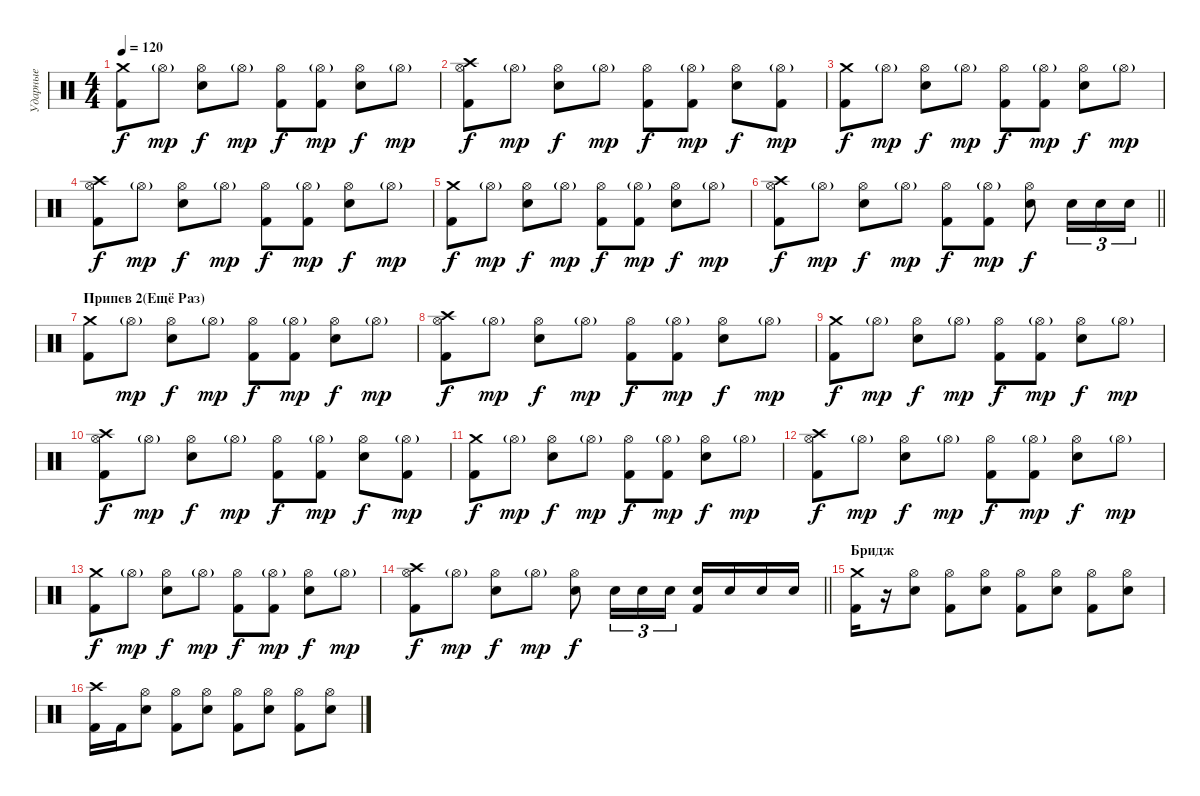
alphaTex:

\track ("Ударные" "Ударные") {instrument percussion}
\staff {score}
\articulation defaults
\ts (4 4)
\tempo 120
\clef neutral
\ks c
("Crash medium (hit)" "Kick (hit) 2").8{dy f} "Hi-Hat (open)"{g}.8{dy mp} ("Hi-Hat (open)" "Snare (hit) 2").8{dy f} "Hi-Hat (open)"{g}.8{dy mp} ("Hi-Hat (open)" "Kick (hit) 2").8{dy f} ("Hi-Hat (open)"{g} "Kick (hit) 2").8{dy mp} ("Hi-Hat (open)" "Snare (hit) 2").8{dy f} "Hi-Hat (open)"{g}.8{dy mp} |
("Crash high (hit)" "Hi-Hat (open)" "Kick (hit) 2").8{dy f} "Hi-Hat (open)"{g}.8{dy mp} ("Hi-Hat (open)" "Snare (hit) 2").8{dy f} "Hi-Hat (open)"{g}.8{dy mp} ("Hi-Hat (open)" "Kick (hit) 2").8{dy f} ("Hi-Hat (open)"{g} "Kick (hit) 2").8{dy mp} ("Hi-Hat (open)" "Snare (hit) 2").8{dy f} ("Hi-Hat (open)"{g} "Kick (hit) 2").8{dy mp} |
("Crash medium (hit)" "Kick (hit) 2").8{dy f} "Hi-Hat (open)"{g}.8{dy mp} ("Hi-Hat (open)" "Snare (hit) 2").8{dy f} "Hi-Hat (open)"{g}.8{dy mp} ("Hi-Hat (open)" "Kick (hit) 2").8{dy f} ("Hi-Hat (open)"{g} "Kick (hit) 2").8{dy mp} ("Hi-Hat (open)" "Snare (hit) 2").8{dy f} "Hi-Hat (open)"{g}.8{dy mp} |
("Hi-Hat (open)" "Kick (hit) 2" "Crash high (hit)").8{dy f} "Hi-Hat (open)"{g}.8{dy mp} ("Hi-Hat (open)" "Snare (hit) 2").8{dy f} "Hi-Hat (open)"{g}.8{dy mp} ("Hi-Hat (open)" "Kick (hit) 2").8{dy f} ("Hi-Hat (open)"{g} "Kick (hit) 2").8{dy mp} ("Hi-Hat (open)" "Snare (hit) 2").8{dy f} "Hi-Hat (open)"{g}.8{dy mp} |
("Crash medium (hit)" "Kick (hit) 2").8{dy f} "Hi-Hat (open)"{g}.8{dy mp} ("Hi-Hat (open)" "Snare (hit) 2").8{dy f} "Hi-Hat (open)"{g}.8{dy mp} ("Hi-Hat (open)" "Kick (hit) 2").8{dy f} ("Hi-Hat (open)"{g} "Kick (hit) 2").8{dy mp} ("Hi-Hat (open)" "Snare (hit) 2").8{dy f} "Hi-Hat (open)"{g}.8{dy mp} |
\barLineRight lightlight
("Crash high (hit)" "Hi-Hat (open)" "Kick (hit) 2").8{dy f} "Hi-Hat (open)"{g}.8{dy mp} ("Hi-Hat (open)" "Snare (hit) 2").8{dy f} "Hi-Hat (open)"{g}.8{dy mp} ("Hi-Hat (open)" "Kick (hit) 2").8{dy f} ("Hi-Hat (open)"{g} "Kick (hit) 2").8{dy mp} ("Hi-Hat (open)" "Snare (hit) 2").8{dy f} "Snare (hit) 2".16{tu (3 2)} "Snare (hit) 2".16{tu (3 2)} "Snare (hit) 2".16{tu (3 2)} |
\section ("" "Припев 2(Ещё Раз)")
("Crash medium (hit)" "Kick (hit) 2").8 "Hi-Hat (open)"{g}.8{dy mp} ("Hi-Hat (open)" "Snare (hit) 2").8{dy f} "Hi-Hat (open)"{g}.8{dy mp} ("Hi-Hat (open)" "Kick (hit) 2").8{dy f} ("Hi-Hat (open)"{g} "Kick (hit) 2").8{dy mp} ("Hi-Hat (open)" "Snare (hit) 2").8{dy f} "Hi-Hat (open)"{g}.8{dy mp} |
("Crash high (hit)" "Hi-Hat (open)" "Kick (hit) 2").8{dy f} "Hi-Hat (open)"{g}.8{dy mp} ("Hi-Hat (open)" "Snare (hit) 2").8{dy f} "Hi-Hat (open)"{g}.8{dy mp} ("Hi-Hat (open)" "Kick (hit) 2").8{dy f} ("Hi-Hat (open)"{g} "Kick (hit) 2").8{dy mp} ("Hi-Hat (open)" "Snare (hit) 2").8{dy f} "Hi-Hat (open)"{g}.8{dy mp} |
("Crash medium (hit)" "Kick (hit) 2").8{dy f} "Hi-Hat (open)"{g}.8{dy mp} ("Hi-Hat (open)" "Snare (hit) 2").8{dy f} "Hi-Hat (open)"{g}.8{dy mp} ("Hi-Hat (open)" "Kick (hit) 2").8{dy f} ("Hi-Hat (open)"{g} "Kick (hit) 2").8{dy mp} ("Hi-Hat (open)" "Snare (hit) 2").8{dy f} "Hi-Hat (open)"{g}.8{dy mp} |
("Crash high (hit)" "Hi-Hat (open)" "Kick (hit) 2").8{dy f} "Hi-Hat (open)"{g}.8{dy mp} ("Hi-Hat (open)" "Snare (hit) 2").8{dy f} "Hi-Hat (open)"{g}.8{dy mp} ("Hi-Hat (open)" "Kick (hit) 2").8{dy f} ("Hi-Hat (open)"{g} "Kick (hit) 2").8{dy mp} ("Hi-Hat (open)" "Snare (hit) 2").8{dy f} ("Hi-Hat (open)"{g} "Kick (hit) 2").8{dy mp} |
("Crash medium (hit)" "Kick (hit) 2").8{dy f} "Hi-Hat (open)"{g}.8{dy mp} ("Hi-Hat (open)" "Snare (hit) 2").8{dy f} "Hi-Hat (open)"{g}.8{dy mp} ("Hi-Hat (open)" "Kick (hit) 2").8{dy f} ("Hi-Hat (open)"{g} "Kick (hit) 2").8{dy mp} ("Hi-Hat (open)" "Snare (hit) 2").8{dy f} "Hi-Hat (open)"{g}.8{dy mp} |
("Hi-Hat (open)" "Kick (hit) 2" "Crash high (hit)").8{dy f} "Hi-Hat (open)"{g}.8{dy mp} ("Hi-Hat (open)" "Snare (hit) 2").8{dy f} "Hi-Hat (open)"{g}.8{dy mp} ("Hi-Hat (open)" "Kick (hit) 2").8{dy f} ("Hi-Hat (open)"{g} "Kick (hit) 2").8{dy mp} ("Hi-Hat (open)" "Snare (hit) 2").8{dy f} "Hi-Hat (open)"{g}.8{dy mp} |
("Crash medium (hit)" "Kick (hit) 2").8{dy f} "Hi-Hat (open)"{g}.8{dy mp} ("Hi-Hat (open)" "Snare (hit) 2").8{dy f} "Hi-Hat (open)"{g}.8{dy mp} ("Hi-Hat (open)" "Kick (hit) 2").8{dy f} ("Hi-Hat (open)"{g} "Kick (hit) 2").8{dy mp} ("Hi-Hat (open)" "Snare (hit) 2").8{dy f} "Hi-Hat (open)"{g}.8{dy mp} |
\barLineRight lightlight
("Crash high (hit)" "Hi-Hat (open)" "Kick (hit) 2").8{dy f} "Hi-Hat (open)"{g}.8{dy mp} ("Hi-Hat (open)" "Snare (hit) 2").8{dy f} "Hi-Hat (open)"{g}.8{dy mp} ("Hi-Hat (open)" "Snare (hit) 2").8{dy f} "Snare (hit) 2".16{tu (3 2)} "Snare (hit) 2".16{tu (3 2)} "Snare (hit) 2".16{tu (3 2)} ("Snare (hit) 2" "Kick (hit) 2").16 "Snare (hit) 2".16 "Snare (hit) 2".16 "Snare (hit) 2".16 |
\section ("" "Бридж")
("Crash medium (hit)" "Kick (hit) 2").16 r.16 ("Hi-Hat (open)" "Snare (hit) 2").8 ("Hi-Hat (open)" "Kick (hit) 2").8 ("Hi-Hat (open)" "Snare (hit) 2").8 ("Hi-Hat (open)" "Kick (hit) 2").8 ("Hi-Hat (open)" "Snare (hit) 2").8 ("Hi-Hat (open)" "Kick (hit) 2").8 ("Hi-Hat (open)" "Snare (hit) 2").8 |
("Crash high (hit)" "Kick (hit) 2").16 "Kick (hit) 2".16 ("Hi-Hat (open)" "Snare (hit) 2").8 ("Hi-Hat (open)" "Kick (hit) 2").8 ("Hi-Hat (open)" "Snare (hit) 2").8 ("Hi-Hat (open)" "Kick (hit) 2").8 ("Hi-Hat (open)" "Snare (hit) 2").8 ("Hi-Hat (open)" "Kick (hit) 2").8 ("Hi-Hat (open)" "Snare (hit) 2").8
